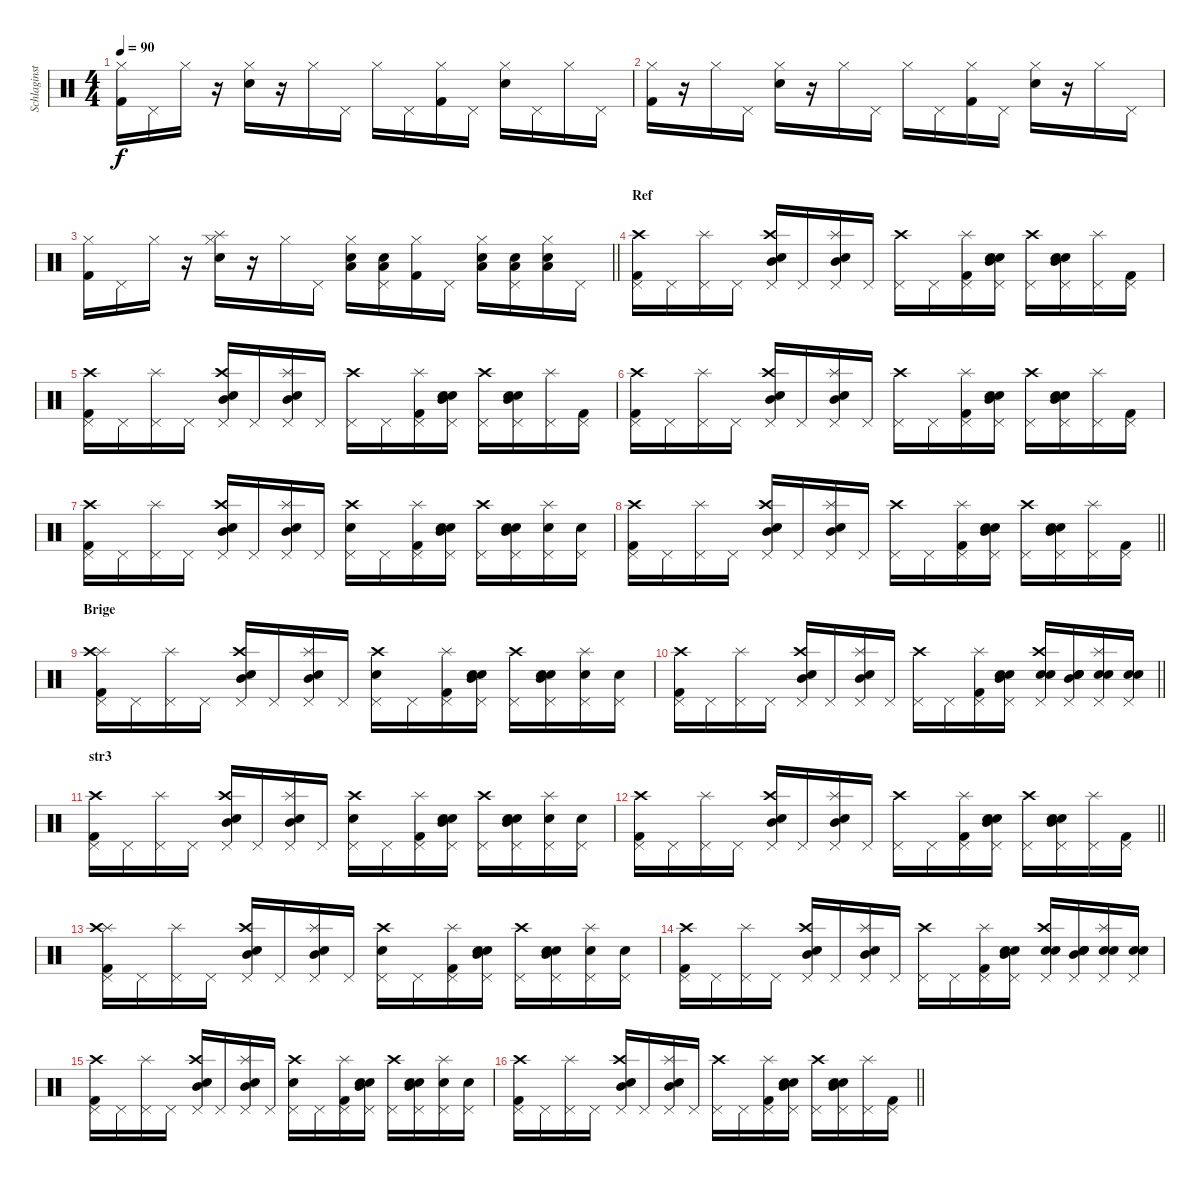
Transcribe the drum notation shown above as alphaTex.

\track ("Schlaginstrumente - Auswahl" "Schlaginst") {instrument percussion}
\staff {score}
\articulation defaults
\ts (4 4)
\tempo 90
\clef neutral
\ks c
("Kick (hit) 2" "Hi-Hat (closed)").16{dy f} "Pedal Hi-Hat (hit)".16 "Hi-Hat (closed)".16 r.16 ("Snare (hit) 2" "Hi-Hat (closed)").16 r.16 "Hi-Hat (closed)".16 "Pedal Hi-Hat (hit)".16 "Hi-Hat (closed)".16 "Pedal Hi-Hat (hit)".16 ("Kick (hit) 2" "Hi-Hat (closed)").16 "Pedal Hi-Hat (hit)".16 ("Snare (hit) 2" "Hi-Hat (closed)").16 "Pedal Hi-Hat (hit)".16 "Hi-Hat (closed)".16 "Pedal Hi-Hat (hit)".16 |
("Kick (hit) 2" "Hi-Hat (closed)").16 r.16 "Hi-Hat (closed)".16 "Pedal Hi-Hat (hit)".16 ("Snare (hit) 2" "Hi-Hat (closed)").16 r.16 "Hi-Hat (closed)".16 "Pedal Hi-Hat (hit)".16 "Hi-Hat (closed)".16 "Pedal Hi-Hat (hit)".16 ("Kick (hit) 2" "Hi-Hat (closed)").16 "Pedal Hi-Hat (hit)".16 ("Snare (hit) 2" "Hi-Hat (closed)").16 r.16 "Hi-Hat (closed)".16 "Pedal Hi-Hat (hit)".16 |
\barLineRight lightlight
("Kick (hit) 2" "Hi-Hat (closed)").16 "Pedal Hi-Hat (hit)".16 "Hi-Hat (closed)".16 r.16 ("Snare (hit) 2" "Hi-Hat (closed)" "Splash (hit)").16 r.16 "Hi-Hat (closed)".16 "Pedal Hi-Hat (hit)".16 ("Hi-Hat (closed)" "Low Tom (hit)" "Snare (hit) 2").16 ("Pedal Hi-Hat (hit)" "Low Tom (hit)" "Snare (hit) 2").16 ("Kick (hit) 2" "Hi-Hat (closed)").16 "Pedal Hi-Hat (hit)".16 ("Snare (hit) 2" "Hi-Hat (closed)" "Low Tom (hit)").16 ("Pedal Hi-Hat (hit)" "Low Tom (hit)" "Snare (hit) 2").16 ("Hi-Hat (closed)" "Low Tom (hit)" "Snare (hit) 2").16 "Pedal Hi-Hat (hit)".16 |
\section ("" "Ref")
("Crash high (hit)" "Kick (hit) 2" "Pedal Hi-Hat (hit)").16 "Pedal Hi-Hat (hit)".16 ("Splash (hit)" "Pedal Hi-Hat (hit)").16 "Pedal Hi-Hat (hit)".16 ("Mid Tom (hit)" "Snare (hit) 2" "Crash high (hit)" "Pedal Hi-Hat (hit)").16 "Pedal Hi-Hat (hit)".16 ("Snare (hit) 2" "Mid Tom (hit)" "Splash (hit)" "Pedal Hi-Hat (hit)").16 "Pedal Hi-Hat (hit)".16 ("Crash high (hit)" "Pedal Hi-Hat (hit)").16 "Pedal Hi-Hat (hit)".16 ("Splash (hit)" "Kick (hit) 2" "Pedal Hi-Hat (hit)").16 ("Mid Tom (hit)" "Snare (hit) 2" "Electric Snare (hit)" "Pedal Hi-Hat (hit)").16 ("Crash high (hit)" "Pedal Hi-Hat (hit)").16 ("Mid Tom (hit)" "Snare (hit) 2" "Electric Snare (hit)" "Pedal Hi-Hat (hit)").16 ("Splash (hit)" "Pedal Hi-Hat (hit)").16 ("Kick (hit) 2" "Pedal Hi-Hat (hit)").16 |
("Crash high (hit)" "Kick (hit) 2" "Pedal Hi-Hat (hit)").16 "Pedal Hi-Hat (hit)".16 ("Splash (hit)" "Pedal Hi-Hat (hit)").16 "Pedal Hi-Hat (hit)".16 ("Mid Tom (hit)" "Snare (hit) 2" "Crash high (hit)" "Pedal Hi-Hat (hit)").16 "Pedal Hi-Hat (hit)".16 ("Snare (hit) 2" "Mid Tom (hit)" "Splash (hit)" "Pedal Hi-Hat (hit)").16 "Pedal Hi-Hat (hit)".16 ("Crash high (hit)" "Pedal Hi-Hat (hit)").16 "Pedal Hi-Hat (hit)".16 ("Splash (hit)" "Kick (hit) 2" "Pedal Hi-Hat (hit)").16 ("Mid Tom (hit)" "Snare (hit) 2" "Electric Snare (hit)" "Pedal Hi-Hat (hit)").16 ("Crash high (hit)" "Pedal Hi-Hat (hit)").16 ("Mid Tom (hit)" "Snare (hit) 2" "Electric Snare (hit)" "Pedal Hi-Hat (hit)").16 ("Splash (hit)" "Pedal Hi-Hat (hit)").16 ("Kick (hit) 2" "Pedal Hi-Hat (hit)").16 |
("Crash high (hit)" "Kick (hit) 2" "Pedal Hi-Hat (hit)").16 "Pedal Hi-Hat (hit)".16 ("Splash (hit)" "Pedal Hi-Hat (hit)").16 "Pedal Hi-Hat (hit)".16 ("Mid Tom (hit)" "Snare (hit) 2" "Crash high (hit)" "Pedal Hi-Hat (hit)").16 "Pedal Hi-Hat (hit)".16 ("Snare (hit) 2" "Mid Tom (hit)" "Splash (hit)" "Pedal Hi-Hat (hit)").16 "Pedal Hi-Hat (hit)".16 ("Crash high (hit)" "Pedal Hi-Hat (hit)").16 "Pedal Hi-Hat (hit)".16 ("Splash (hit)" "Kick (hit) 2" "Pedal Hi-Hat (hit)").16 ("Mid Tom (hit)" "Snare (hit) 2" "Electric Snare (hit)" "Pedal Hi-Hat (hit)").16 ("Crash high (hit)" "Pedal Hi-Hat (hit)").16 ("Mid Tom (hit)" "Snare (hit) 2" "Electric Snare (hit)" "Pedal Hi-Hat (hit)").16 ("Splash (hit)" "Pedal Hi-Hat (hit)").16 ("Kick (hit) 2" "Pedal Hi-Hat (hit)").16 |
("Crash high (hit)" "Kick (hit) 2" "Pedal Hi-Hat (hit)").16 "Pedal Hi-Hat (hit)".16 ("Splash (hit)" "Pedal Hi-Hat (hit)").16 "Pedal Hi-Hat (hit)".16 ("Mid Tom (hit)" "Snare (hit) 2" "Crash high (hit)" "Pedal Hi-Hat (hit)").16 "Pedal Hi-Hat (hit)".16 ("Snare (hit) 2" "Mid Tom (hit)" "Splash (hit)" "Pedal Hi-Hat (hit)").16 "Pedal Hi-Hat (hit)".16 ("Crash high (hit)" "Snare (hit) 2" "Pedal Hi-Hat (hit)").16 "Pedal Hi-Hat (hit)".16 ("Splash (hit)" "Kick (hit) 2" "Pedal Hi-Hat (hit)").16 ("Mid Tom (hit)" "Snare (hit) 2" "Electric Snare (hit)" "Pedal Hi-Hat (hit)").16 ("Crash high (hit)" "Pedal Hi-Hat (hit)").16 ("Mid Tom (hit)" "Snare (hit) 2" "Electric Snare (hit)" "Pedal Hi-Hat (hit)").16 ("Snare (hit) 2" "Splash (hit)" "Pedal Hi-Hat (hit)").16 ("Snare (hit) 2" "Pedal Hi-Hat (hit)").16 |
\barLineRight lightlight
("Crash high (hit)" "Kick (hit) 2" "Pedal Hi-Hat (hit)").16 "Pedal Hi-Hat (hit)".16 ("Splash (hit)" "Pedal Hi-Hat (hit)").16 "Pedal Hi-Hat (hit)".16 ("Mid Tom (hit)" "Snare (hit) 2" "Crash high (hit)" "Pedal Hi-Hat (hit)").16 "Pedal Hi-Hat (hit)".16 ("Snare (hit) 2" "Mid Tom (hit)" "Splash (hit)" "Pedal Hi-Hat (hit)").16 "Pedal Hi-Hat (hit)".16 ("Crash high (hit)" "Pedal Hi-Hat (hit)").16 "Pedal Hi-Hat (hit)".16 ("Splash (hit)" "Kick (hit) 2" "Pedal Hi-Hat (hit)").16 ("Mid Tom (hit)" "Snare (hit) 2" "Electric Snare (hit)" "Pedal Hi-Hat (hit)").16 ("Crash high (hit)" "Pedal Hi-Hat (hit)").16 ("Mid Tom (hit)" "Snare (hit) 2" "Electric Snare (hit)" "Pedal Hi-Hat (hit)").16 ("Splash (hit)" "Pedal Hi-Hat (hit)").16 ("Kick (hit) 2" "Pedal Hi-Hat (hit)").16 |
\section ("" "Brige")
("Splash (hit)" "Crash high (hit)" "Kick (hit) 2" "Pedal Hi-Hat (hit)").16 "Pedal Hi-Hat (hit)".16 ("Splash (hit)" "Pedal Hi-Hat (hit)").16 "Pedal Hi-Hat (hit)".16 ("Mid Tom (hit)" "Snare (hit) 2" "Crash high (hit)" "Pedal Hi-Hat (hit)").16 "Pedal Hi-Hat (hit)".16 ("Snare (hit) 2" "Mid Tom (hit)" "Splash (hit)" "Pedal Hi-Hat (hit)").16 "Pedal Hi-Hat (hit)".16 ("Crash high (hit)" "Snare (hit) 2" "Pedal Hi-Hat (hit)").16 "Pedal Hi-Hat (hit)".16 ("Splash (hit)" "Kick (hit) 2" "Pedal Hi-Hat (hit)").16 ("Mid Tom (hit)" "Snare (hit) 2" "Electric Snare (hit)" "Pedal Hi-Hat (hit)").16 ("Crash high (hit)" "Pedal Hi-Hat (hit)").16 ("Mid Tom (hit)" "Snare (hit) 2" "Electric Snare (hit)" "Pedal Hi-Hat (hit)").16 ("Snare (hit) 2" "Splash (hit)" "Pedal Hi-Hat (hit)").16 ("Snare (hit) 2" "Pedal Hi-Hat (hit)").16 |
\barLineRight lightlight
("Crash high (hit)" "Kick (hit) 2" "Pedal Hi-Hat (hit)").16 "Pedal Hi-Hat (hit)".16 ("Splash (hit)" "Pedal Hi-Hat (hit)").16 "Pedal Hi-Hat (hit)".16 ("Mid Tom (hit)" "Snare (hit) 2" "Crash high (hit)" "Pedal Hi-Hat (hit)").16 "Pedal Hi-Hat (hit)".16 ("Snare (hit) 2" "Mid Tom (hit)" "Splash (hit)" "Pedal Hi-Hat (hit)").16 "Pedal Hi-Hat (hit)".16 ("Crash high (hit)" "Pedal Hi-Hat (hit)").16 "Pedal Hi-Hat (hit)".16 ("Splash (hit)" "Kick (hit) 2" "Pedal Hi-Hat (hit)").16 ("Mid Tom (hit)" "Snare (hit) 2" "Electric Snare (hit)" "Pedal Hi-Hat (hit)").16 ("Crash high (hit)" "Electric Snare (hit)" "Pedal Hi-Hat (hit)" "Snare (hit) 2").16 ("Mid Tom (hit)" "Snare (hit) 2" "Electric Snare (hit)" "Pedal Hi-Hat (hit)" "Snare (hit) 2").16 ("Splash (hit)" "Electric Snare (hit)" "Pedal Hi-Hat (hit)" "Snare (hit) 2").16 ("Electric Snare (hit)" "Pedal Hi-Hat (hit)" "Snare (hit) 2").16 |
\section ("" "str3")
("Crash high (hit)" "Kick (hit) 2" "Pedal Hi-Hat (hit)").16 "Pedal Hi-Hat (hit)".16 ("Splash (hit)" "Pedal Hi-Hat (hit)").16 "Pedal Hi-Hat (hit)".16 ("Mid Tom (hit)" "Snare (hit) 2" "Crash high (hit)" "Pedal Hi-Hat (hit)").16 "Pedal Hi-Hat (hit)".16 ("Snare (hit) 2" "Mid Tom (hit)" "Splash (hit)" "Pedal Hi-Hat (hit)").16 "Pedal Hi-Hat (hit)".16 ("Crash high (hit)" "Snare (hit) 2" "Pedal Hi-Hat (hit)").16 "Pedal Hi-Hat (hit)".16 ("Splash (hit)" "Kick (hit) 2" "Pedal Hi-Hat (hit)").16 ("Mid Tom (hit)" "Snare (hit) 2" "Electric Snare (hit)" "Pedal Hi-Hat (hit)").16 ("Crash high (hit)" "Pedal Hi-Hat (hit)").16 ("Mid Tom (hit)" "Snare (hit) 2" "Electric Snare (hit)" "Pedal Hi-Hat (hit)").16 ("Snare (hit) 2" "Splash (hit)" "Pedal Hi-Hat (hit)").16 ("Snare (hit) 2" "Pedal Hi-Hat (hit)").16 |
\barLineRight lightlight
("Crash high (hit)" "Kick (hit) 2" "Pedal Hi-Hat (hit)").16 "Pedal Hi-Hat (hit)".16 ("Splash (hit)" "Pedal Hi-Hat (hit)").16 "Pedal Hi-Hat (hit)".16 ("Mid Tom (hit)" "Snare (hit) 2" "Crash high (hit)" "Pedal Hi-Hat (hit)").16 "Pedal Hi-Hat (hit)".16 ("Snare (hit) 2" "Mid Tom (hit)" "Splash (hit)" "Pedal Hi-Hat (hit)").16 "Pedal Hi-Hat (hit)".16 ("Crash high (hit)" "Pedal Hi-Hat (hit)").16 "Pedal Hi-Hat (hit)".16 ("Splash (hit)" "Kick (hit) 2" "Pedal Hi-Hat (hit)").16 ("Mid Tom (hit)" "Snare (hit) 2" "Electric Snare (hit)" "Pedal Hi-Hat (hit)").16 ("Crash high (hit)" "Pedal Hi-Hat (hit)").16 ("Mid Tom (hit)" "Snare (hit) 2" "Electric Snare (hit)" "Pedal Hi-Hat (hit)").16 ("Splash (hit)" "Pedal Hi-Hat (hit)").16 ("Kick (hit) 2" "Pedal Hi-Hat (hit)").16 |
("Splash (hit)" "Crash high (hit)" "Kick (hit) 2" "Pedal Hi-Hat (hit)").16 "Pedal Hi-Hat (hit)".16 ("Splash (hit)" "Pedal Hi-Hat (hit)").16 "Pedal Hi-Hat (hit)".16 ("Mid Tom (hit)" "Snare (hit) 2" "Crash high (hit)" "Pedal Hi-Hat (hit)").16 "Pedal Hi-Hat (hit)".16 ("Snare (hit) 2" "Mid Tom (hit)" "Splash (hit)" "Pedal Hi-Hat (hit)").16 "Pedal Hi-Hat (hit)".16 ("Crash high (hit)" "Snare (hit) 2" "Pedal Hi-Hat (hit)").16 "Pedal Hi-Hat (hit)".16 ("Splash (hit)" "Kick (hit) 2" "Pedal Hi-Hat (hit)").16 ("Mid Tom (hit)" "Snare (hit) 2" "Electric Snare (hit)" "Pedal Hi-Hat (hit)").16 ("Crash high (hit)" "Pedal Hi-Hat (hit)").16 ("Mid Tom (hit)" "Snare (hit) 2" "Electric Snare (hit)" "Pedal Hi-Hat (hit)").16 ("Snare (hit) 2" "Splash (hit)" "Pedal Hi-Hat (hit)").16 ("Snare (hit) 2" "Pedal Hi-Hat (hit)").16 |
("Crash high (hit)" "Kick (hit) 2" "Pedal Hi-Hat (hit)").16 "Pedal Hi-Hat (hit)".16 ("Splash (hit)" "Pedal Hi-Hat (hit)").16 "Pedal Hi-Hat (hit)".16 ("Mid Tom (hit)" "Snare (hit) 2" "Crash high (hit)" "Pedal Hi-Hat (hit)").16 "Pedal Hi-Hat (hit)".16 ("Snare (hit) 2" "Mid Tom (hit)" "Splash (hit)" "Pedal Hi-Hat (hit)").16 "Pedal Hi-Hat (hit)".16 ("Crash high (hit)" "Pedal Hi-Hat (hit)").16 "Pedal Hi-Hat (hit)".16 ("Splash (hit)" "Kick (hit) 2" "Pedal Hi-Hat (hit)").16 ("Mid Tom (hit)" "Snare (hit) 2" "Electric Snare (hit)" "Pedal Hi-Hat (hit)").16 ("Crash high (hit)" "Electric Snare (hit)" "Pedal Hi-Hat (hit)" "Snare (hit) 2").16 ("Mid Tom (hit)" "Snare (hit) 2" "Electric Snare (hit)" "Pedal Hi-Hat (hit)" "Snare (hit) 2").16 ("Splash (hit)" "Electric Snare (hit)" "Pedal Hi-Hat (hit)" "Snare (hit) 2").16 ("Electric Snare (hit)" "Pedal Hi-Hat (hit)" "Snare (hit) 2").16 |
("Crash high (hit)" "Kick (hit) 2" "Pedal Hi-Hat (hit)").16 "Pedal Hi-Hat (hit)".16 ("Splash (hit)" "Pedal Hi-Hat (hit)").16 "Pedal Hi-Hat (hit)".16 ("Mid Tom (hit)" "Snare (hit) 2" "Crash high (hit)" "Pedal Hi-Hat (hit)").16 "Pedal Hi-Hat (hit)".16 ("Snare (hit) 2" "Mid Tom (hit)" "Splash (hit)" "Pedal Hi-Hat (hit)").16 "Pedal Hi-Hat (hit)".16 ("Crash high (hit)" "Snare (hit) 2" "Pedal Hi-Hat (hit)").16 "Pedal Hi-Hat (hit)".16 ("Splash (hit)" "Kick (hit) 2" "Pedal Hi-Hat (hit)").16 ("Mid Tom (hit)" "Snare (hit) 2" "Electric Snare (hit)" "Pedal Hi-Hat (hit)").16 ("Crash high (hit)" "Pedal Hi-Hat (hit)").16 ("Mid Tom (hit)" "Snare (hit) 2" "Electric Snare (hit)" "Pedal Hi-Hat (hit)").16 ("Snare (hit) 2" "Splash (hit)" "Pedal Hi-Hat (hit)").16 ("Snare (hit) 2" "Pedal Hi-Hat (hit)").16 |
\barLineRight lightlight
("Crash high (hit)" "Kick (hit) 2" "Pedal Hi-Hat (hit)").16 "Pedal Hi-Hat (hit)".16 ("Splash (hit)" "Pedal Hi-Hat (hit)").16 "Pedal Hi-Hat (hit)".16 ("Mid Tom (hit)" "Snare (hit) 2" "Crash high (hit)" "Pedal Hi-Hat (hit)").16 "Pedal Hi-Hat (hit)".16 ("Snare (hit) 2" "Mid Tom (hit)" "Splash (hit)" "Pedal Hi-Hat (hit)").16 "Pedal Hi-Hat (hit)".16 ("Crash high (hit)" "Pedal Hi-Hat (hit)").16 "Pedal Hi-Hat (hit)".16 ("Splash (hit)" "Kick (hit) 2" "Pedal Hi-Hat (hit)").16 ("Mid Tom (hit)" "Snare (hit) 2" "Electric Snare (hit)" "Pedal Hi-Hat (hit)").16 ("Crash high (hit)" "Pedal Hi-Hat (hit)").16 ("Mid Tom (hit)" "Snare (hit) 2" "Electric Snare (hit)" "Pedal Hi-Hat (hit)").16 ("Splash (hit)" "Pedal Hi-Hat (hit)").16 ("Kick (hit) 2" "Pedal Hi-Hat (hit)").16
